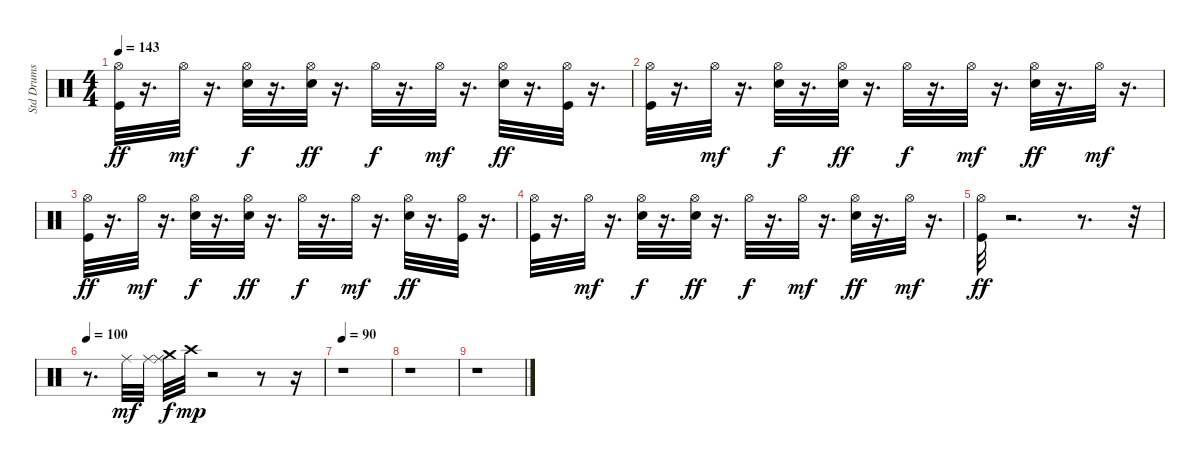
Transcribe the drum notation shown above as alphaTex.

\track ("Std Drums" "Std Drums") {instrument percussion}
\staff {score}
\articulation defaults
\ts (4 4)
\tempo 143
\clef neutral
\ks c
("Hi-Hat (open)" "Kick (hit)").32{dy ff} r.16{d} "Hi-Hat (open)".32{dy mf} r.16{d} ("Hi-Hat (open)" "Snare (hit) 2").32{dy f} r.16{d} ("Hi-Hat (open)" "Snare (hit) 2").32{dy ff} r.16{d} "Hi-Hat (open)".32{dy f} r.16{d} "Hi-Hat (open)".32{dy mf} r.16{d} ("Hi-Hat (open)" "Snare (hit) 2").32{dy ff} r.16{d} ("Hi-Hat (open)" "Kick (hit)").32 r.16{d} |
("Hi-Hat (open)" "Kick (hit)").32 r.16{d} "Hi-Hat (open)".32{dy mf} r.16{d} ("Hi-Hat (open)" "Snare (hit) 2").32{dy f} r.16{d} ("Hi-Hat (open)" "Snare (hit) 2").32{dy ff} r.16{d} "Hi-Hat (open)".32{dy f} r.16{d} "Hi-Hat (open)".32{dy mf} r.16{d} ("Hi-Hat (open)" "Snare (hit) 2").32{dy ff} r.16{d} "Hi-Hat (open)".32{dy mf} r.16{d} |
("Hi-Hat (open)" "Kick (hit)").32{dy ff} r.16{d} "Hi-Hat (open)".32{dy mf} r.16{d} ("Hi-Hat (open)" "Snare (hit) 2").32{dy f} r.16{d} ("Hi-Hat (open)" "Snare (hit) 2").32{dy ff} r.16{d} "Hi-Hat (open)".32{dy f} r.16{d} "Hi-Hat (open)".32{dy mf} r.16{d} ("Hi-Hat (open)" "Snare (hit) 2").32{dy ff} r.16{d} ("Hi-Hat (open)" "Kick (hit)").32 r.16{d} |
("Hi-Hat (open)" "Kick (hit)").32 r.16{d} "Hi-Hat (open)".32{dy mf} r.16{d} ("Hi-Hat (open)" "Snare (hit) 2").32{dy f} r.16{d} ("Hi-Hat (open)" "Snare (hit) 2").32{dy ff} r.16{d} "Hi-Hat (open)".32{dy f} r.16{d} "Hi-Hat (open)".32{dy mf} r.16{d} ("Hi-Hat (open)" "Snare (hit) 2").32{dy ff} r.16{d} "Hi-Hat (open)".32{dy mf} r.16{d} |
("Hi-Hat (open)" "Kick (hit)").32{dy ff} r.2{d} r.8{d} r.32 |
\tempo 100
r.8{d} "Ride (middle)".32{dy mf} "Ride (middle)".32 ("Ride (middle)" "Crash medium (hit)").32{dy f} "Crash high (hit)".32{dy mp} r.2 r.8 r.16 |
\tempo 90
r.1 |
r.1 |
r.1
